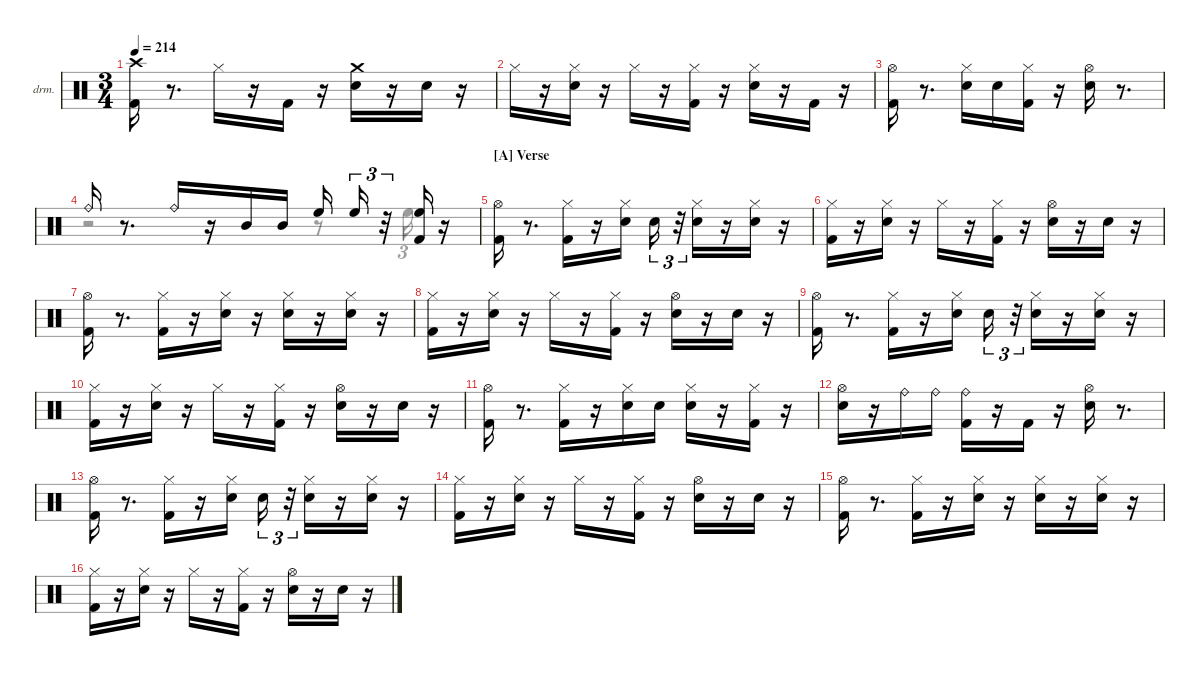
\hideDynamics
\bracketExtendMode nobrackets
\firstSystemTrackNameOrientation horizontal
\track ("EZdrummer 3" "drm.") {instrument percussion}
\staff {score}
\articulation defaults
\voice
\ts (3 4)
\tempo 214
\clef neutral
\ks aminor
("Kick (hit) 2" "Crash high (hit)"{acc #}).16{dy fff} r.8{d} "Hi-Hat (closed)"{acc #}.16{dy f} r.16 "Kick (hit) 2".16 r.16 ("Snare (hit) 2" "Crash medium (hit)").16 r.16 "Snare (hit) 2".16{dy pp} r.16 |
"Hi-Hat (closed)"{acc #}.16{dy ff} r.16 ("Snare (hit) 2" "Hi-Hat (closed)"{acc #}).16{dy f} r.16 "Hi-Hat (closed)"{acc #}.16 r.16 ("Kick (hit) 2" "Hi-Hat (closed)"{acc #}).16 r.16 ("Snare (hit) 2" "Hi-Hat (closed)"{acc #}).16 r.16 "Kick (hit) 2".16{dy pp} r.16 |
("Kick (hit) 2" "Hi-Hat (open)"{acc #}).16{dy ff} r.8{d} ("Snare (hit) 2" "Hi-Hat (closed)"{acc #}).16{dy p} "Snare (hit) 2".16 ("Kick (hit) 2" "Hi-Hat (closed)"{acc #}).16{dy mf} r.16 ("Snare (hit) 2" "Hi-Hat (open)"{acc #}).16{dy fff} r.8{d} |
"Ride (bell)".16{dy ff} r.8{d} "Ride (bell)".16{dy f} r.16 "Mid Tom (hit)".16 "Mid Tom (hit)".16{dy p} "High Floor Tom (hit)".16{dy fff} "High Floor Tom (hit)".16{tu (3 2) dy ppp} r.32{tu (3 2)} ("Kick (hit) 2" "High Floor Tom (hit)").16{dy mf} r.16 |
\section ("A" "Verse")
("Kick (hit) 2" "Hi-Hat (open)"{acc #}).16{dy ff} r.8{d} ("Kick (hit) 2" "Hi-Hat (closed)"{acc #}).16{dy mf} r.16 ("Snare (hit) 2" "Hi-Hat (closed)"{acc #}).16{dy pp} "Snare (hit) 2".16{tu (3 2) dy p} r.32{tu (3 2)} ("Snare (hit) 2" "Hi-Hat (closed)"{acc #}).16{dy ppp} r.16 ("Snare (hit) 2" "Hi-Hat (closed)"{acc #}).16{dy pp} r.16 |
("Kick (hit) 2" "Hi-Hat (closed)"{acc #}).16{dy mf} r.16 ("Snare (hit) 2" "Hi-Hat (closed)"{acc #}).16{dy f} r.16 "Hi-Hat (closed)"{acc #}.16 r.16 ("Kick (hit) 2" "Hi-Hat (closed)"{acc #}).16 r.16 ("Snare (hit) 2" "Hi-Hat (open)"{acc #}).16 r.16 "Snare (hit) 2".16{dy pp} r.16 |
("Kick (hit) 2" "Hi-Hat (open)"{acc #}).16{dy ff} r.8{d} ("Kick (hit) 2" "Hi-Hat (closed)"{acc #}).16{dy f} r.16 ("Snare (hit) 2" "Hi-Hat (closed)"{acc #}).16 r.16 ("Snare (hit) 2" "Hi-Hat (closed)"{acc #}).16{dy ppp} r.16 ("Snare (hit) 2" "Hi-Hat (closed)"{acc #}).16{dy pp} r.16 |
("Kick (hit) 2" "Hi-Hat (closed)"{acc #}).16{dy mf} r.16 ("Snare (hit) 2" "Hi-Hat (closed)"{acc #}).16{dy mp} r.16 "Hi-Hat (closed)"{acc #}.16{dy f} r.16 ("Kick (hit) 2" "Hi-Hat (closed)"{acc #}).16 r.16 ("Snare (hit) 2" "Hi-Hat (open)"{acc #}).16 r.16 "Snare (hit) 2".16{dy pp} r.16 |
("Kick (hit) 2" "Hi-Hat (open)"{acc #}).16{dy ff} r.8{d} ("Kick (hit) 2" "Hi-Hat (closed)"{acc #}).16{dy mf} r.16 ("Snare (hit) 2" "Hi-Hat (closed)"{acc #}).16{dy f} "Snare (hit) 2".16{tu (3 2) dy p} r.32{tu (3 2)} ("Snare (hit) 2" "Hi-Hat (closed)"{acc #}).16{dy ppp} r.16 ("Snare (hit) 2" "Hi-Hat (closed)"{acc #}).16{dy pp} r.16 |
("Kick (hit) 2" "Hi-Hat (closed)"{acc #}).16{dy mf} r.16 ("Snare (hit) 2" "Hi-Hat (closed)"{acc #}).16{dy pp} r.16 "Hi-Hat (closed)"{acc #}.16{dy f} r.16 ("Kick (hit) 2" "Hi-Hat (closed)"{acc #}).16 r.16 ("Snare (hit) 2" "Hi-Hat (open)"{acc #}).16 r.16 "Snare (hit) 2".16{dy pp} r.16 |
("Kick (hit) 2" "Hi-Hat (open)"{acc #}).16{dy ff} r.8{d} ("Kick (hit) 2" "Hi-Hat (closed)"{acc #}).16{dy f} r.16 ("Snare (hit) 2" "Hi-Hat (closed)"{acc #}).16 "Snare (hit) 2".16{dy pp} ("Snare (hit) 2" "Hi-Hat (closed)"{acc #}).16{dy ppp} r.16 ("Kick (hit) 2" "Hi-Hat (closed)"{acc #}).16{dy mf} r.16 |
("Snare (hit) 2" "Hi-Hat (open)"{acc #}).16{dy fff} r.16 "Ride (bell)".16{dy ff} "Ride (bell)".16{dy f} ("Kick (hit) 2" "Ride (bell)").16{dy mp} r.16 "Kick (hit) 2".16{dy ff} r.16 ("Snare (hit) 2" "Hi-Hat (open)"{acc #}).16{dy fff} r.8{d} |
("Kick (hit) 2" "Hi-Hat (open)"{acc #}).16{dy ff} r.8{d} ("Kick (hit) 2" "Hi-Hat (closed)"{acc #}).16{dy mf} r.16 ("Snare (hit) 2" "Hi-Hat (closed)"{acc #}).16{dy f} "Snare (hit) 2".16{tu (3 2) dy p} r.32{tu (3 2)} ("Snare (hit) 2" "Hi-Hat (closed)"{acc #}).16{dy ppp} r.16 ("Snare (hit) 2" "Hi-Hat (closed)"{acc #}).16{dy pp} r.16 |
("Kick (hit) 2" "Hi-Hat (closed)"{acc #}).16{dy mf} r.16 ("Snare (hit) 2" "Hi-Hat (closed)"{acc #}).16{dy f} r.16 "Hi-Hat (closed)"{acc #}.16 r.16 ("Kick (hit) 2" "Hi-Hat (closed)"{acc #}).16 r.16 ("Snare (hit) 2" "Hi-Hat (open)"{acc #}).16 r.16 "Snare (hit) 2".16{dy pp} r.16 |
("Kick (hit) 2" "Hi-Hat (open)"{acc #}).16{dy ff} r.8{d} ("Kick (hit) 2" "Hi-Hat (closed)"{acc #}).16{dy f} r.16 ("Snare (hit) 2" "Hi-Hat (closed)"{acc #}).16 r.16 ("Snare (hit) 2" "Hi-Hat (closed)"{acc #}).16{dy ppp} r.16 ("Snare (hit) 2" "Hi-Hat (closed)"{acc #}).16{dy pp} r.16 |
("Kick (hit) 2" "Hi-Hat (closed)"{acc #}).16{dy mf} r.16 ("Snare (hit) 2" "Hi-Hat (closed)"{acc #}).16{dy mp} r.16 "Hi-Hat (closed)"{acc #}.16{dy f} r.16 ("Kick (hit) 2" "Hi-Hat (closed)"{acc #}).16 r.16 ("Snare (hit) 2" "Hi-Hat (open)"{acc #}).16 r.16 "Snare (hit) 2".16{dy pp} r.16
\voice
\clef neutral
\ottava regular
\simile none
\ks aminor
|
|
|
r.2 r.8 "High Floor Tom (hit)".16{tu (3 2) dy ppp} |
|
|
|
|
|
|
|
|
|
|
|
